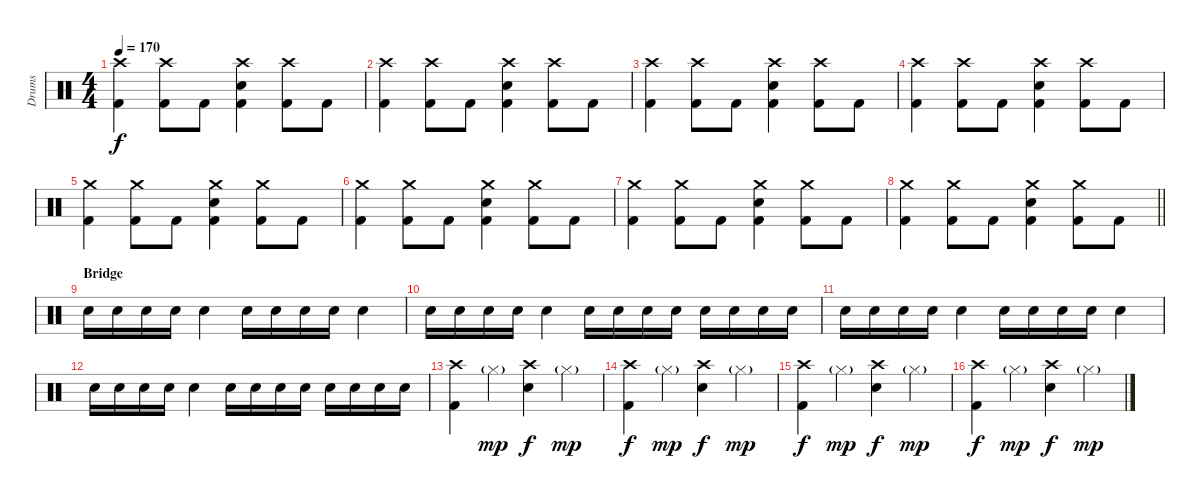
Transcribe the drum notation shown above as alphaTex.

\track ("Drums" "Drums") {instrument percussion}
\staff {score}
\articulation defaults
\ts (4 4)
\tempo 170
\clef neutral
\ks c
("Crash high (hit)" "Kick (hit) 2").4{dy f} ("Crash high (hit)" "Kick (hit) 2").8 "Kick (hit) 2".8 ("Crash high (hit)" "Electric Snare (hit)" "Kick (hit) 2").4 ("Crash high (hit)" "Kick (hit) 2").8 "Kick (hit) 2".8 |
("Crash high (hit)" "Kick (hit) 2").4 ("Crash high (hit)" "Kick (hit) 2").8 "Kick (hit) 2".8 ("Crash high (hit)" "Electric Snare (hit)" "Kick (hit) 2").4 ("Crash high (hit)" "Kick (hit) 2").8 "Kick (hit) 2".8 |
("Crash high (hit)" "Kick (hit) 2").4 ("Crash high (hit)" "Kick (hit) 2").8 "Kick (hit) 2".8 ("Crash high (hit)" "Electric Snare (hit)" "Kick (hit) 2").4 ("Crash high (hit)" "Kick (hit) 2").8 "Kick (hit) 2".8 |
("Crash high (hit)" "Kick (hit) 2").4 ("Crash high (hit)" "Kick (hit) 2").8 "Kick (hit) 2".8 ("Crash high (hit)" "Electric Snare (hit)" "Kick (hit) 2").4 ("Crash high (hit)" "Kick (hit) 2").8 "Kick (hit) 2".8 |
("Crash medium (hit)" "Kick (hit) 2").4 ("Crash medium (hit)" "Kick (hit) 2").8 "Kick (hit) 2".8 ("Crash medium (hit)" "Electric Snare (hit)" "Kick (hit) 2").4 ("Crash medium (hit)" "Kick (hit) 2").8 "Kick (hit) 2".8 |
("Crash medium (hit)" "Kick (hit) 2").4 ("Crash medium (hit)" "Kick (hit) 2").8 "Kick (hit) 2".8 ("Crash medium (hit)" "Electric Snare (hit)" "Kick (hit) 2").4 ("Crash medium (hit)" "Kick (hit) 2").8 "Kick (hit) 2".8 |
("Crash medium (hit)" "Kick (hit) 2").4 ("Crash medium (hit)" "Kick (hit) 2").8 "Kick (hit) 2".8 ("Crash medium (hit)" "Electric Snare (hit)" "Kick (hit) 2").4 ("Crash medium (hit)" "Kick (hit) 2").8 "Kick (hit) 2".8 |
\barLineRight lightlight
("Crash medium (hit)" "Kick (hit) 2").4 ("Crash medium (hit)" "Kick (hit) 2").8 "Kick (hit) 2".8 ("Crash medium (hit)" "Electric Snare (hit)" "Kick (hit) 2").4 ("Crash medium (hit)" "Kick (hit) 2").8 "Kick (hit) 2".8 |
\section ("" "Bridge")
"Electric Snare (hit)".16 "Electric Snare (hit)".16 "Electric Snare (hit)".16 "Electric Snare (hit)".16 "Electric Snare (hit)".4 "Electric Snare (hit)".16 "Electric Snare (hit)".16 "Electric Snare (hit)".16 "Electric Snare (hit)".16 "Electric Snare (hit)".4 |
"Electric Snare (hit)".16 "Electric Snare (hit)".16 "Electric Snare (hit)".16 "Electric Snare (hit)".16 "Electric Snare (hit)".4 "Electric Snare (hit)".16 "Electric Snare (hit)".16 "Electric Snare (hit)".16 "Electric Snare (hit)".16 "Electric Snare (hit)".16 "Electric Snare (hit)".16 "Electric Snare (hit)".16 "Electric Snare (hit)".16 |
"Electric Snare (hit)".16 "Electric Snare (hit)".16 "Electric Snare (hit)".16 "Electric Snare (hit)".16 "Electric Snare (hit)".4 "Electric Snare (hit)".16 "Electric Snare (hit)".16 "Electric Snare (hit)".16 "Electric Snare (hit)".16 "Electric Snare (hit)".4 |
"Electric Snare (hit)".16 "Electric Snare (hit)".16 "Electric Snare (hit)".16 "Electric Snare (hit)".16 "Electric Snare (hit)".4 "Electric Snare (hit)".16 "Electric Snare (hit)".16 "Electric Snare (hit)".16 "Electric Snare (hit)".16 "Electric Snare (hit)".16 "Electric Snare (hit)".16 "Electric Snare (hit)".16 "Electric Snare (hit)".16 |
("Crash high (hit)" "Kick (hit) 2").4 "Hi-Hat (closed)"{g}.4{dy mp} ("Crash high (hit)" "Electric Snare (hit)").4{dy f} "Hi-Hat (closed)"{g}.4{dy mp} |
("Crash high (hit)" "Kick (hit) 2").4{dy f} "Hi-Hat (closed)"{g}.4{dy mp} ("Crash high (hit)" "Electric Snare (hit)").4{dy f} "Hi-Hat (closed)"{g}.4{dy mp} |
("Crash high (hit)" "Kick (hit) 2").4{dy f} "Hi-Hat (closed)"{g}.4{dy mp} ("Crash high (hit)" "Electric Snare (hit)").4{dy f} "Hi-Hat (closed)"{g}.4{dy mp} |
("Crash high (hit)" "Kick (hit) 2").4{dy f} "Hi-Hat (closed)"{g}.4{dy mp} ("Crash high (hit)" "Electric Snare (hit)").4{dy f} "Hi-Hat (closed)"{g}.4{dy mp}
